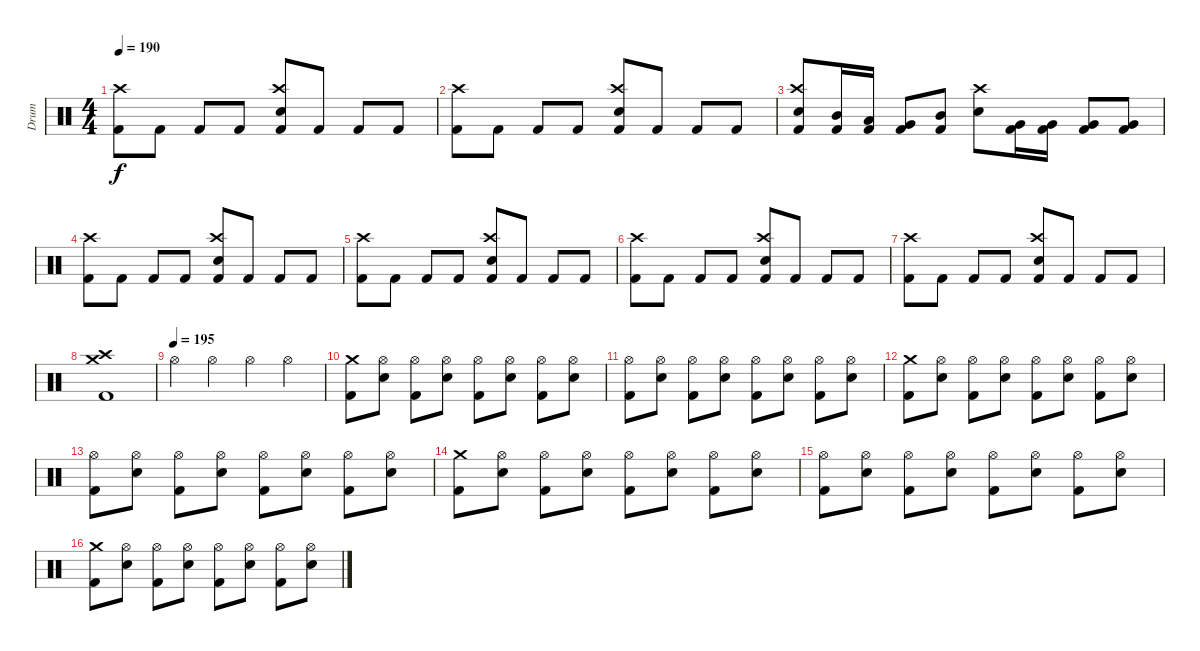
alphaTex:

\track ("Drum" "Drum") {instrument percussion}
\staff {score}
\articulation defaults
\ts (4 4)
\tempo 190
\clef neutral
\ks c
("Kick (hit) 2" "Crash high (hit)").8{dy f} "Kick (hit) 2".8 "Kick (hit) 2".8 "Kick (hit) 2".8 ("Kick (hit) 2" "Electric Snare (hit)" "Crash high (hit)").8 "Kick (hit) 2".8 "Kick (hit) 2".8 "Kick (hit) 2".8 |
("Kick (hit) 2" "Crash high (hit)").8 "Kick (hit) 2".8 "Kick (hit) 2".8 "Kick (hit) 2".8 ("Kick (hit) 2" "Electric Snare (hit)" "Crash high (hit)").8 "Kick (hit) 2".8 "Kick (hit) 2".8 "Kick (hit) 2".8 |
("Electric Snare (hit)" "Crash high (hit)" "Kick (hit) 2").8 ("Mid Tom (hit)" "Kick (hit) 2").16 ("Low Tom (hit)" "Kick (hit) 2").16 ("Very Low Tom (hit)" "Kick (hit) 2").8 ("Mid Tom (hit)" "Kick (hit) 2").8 ("Electric Snare (hit)" "Crash high (hit)").8 ("Very Low Tom (hit)" "Kick (hit) 2").16 ("Very Low Tom (hit)" "Kick (hit) 2").16 ("Very Low Tom (hit)" "Kick (hit) 2").8 ("Very Low Tom (hit)" "Kick (hit) 2").8 |
("Kick (hit) 2" "Crash high (hit)").8 "Kick (hit) 2".8 "Kick (hit) 2".8 "Kick (hit) 2".8 ("Kick (hit) 2" "Electric Snare (hit)" "Crash high (hit)").8 "Kick (hit) 2".8 "Kick (hit) 2".8 "Kick (hit) 2".8 |
("Kick (hit) 2" "Crash high (hit)").8 "Kick (hit) 2".8 "Kick (hit) 2".8 "Kick (hit) 2".8 ("Kick (hit) 2" "Electric Snare (hit)" "Crash high (hit)").8 "Kick (hit) 2".8 "Kick (hit) 2".8 "Kick (hit) 2".8 |
("Kick (hit) 2" "Crash high (hit)").8 "Kick (hit) 2".8 "Kick (hit) 2".8 "Kick (hit) 2".8 ("Kick (hit) 2" "Electric Snare (hit)" "Crash high (hit)").8 "Kick (hit) 2".8 "Kick (hit) 2".8 "Kick (hit) 2".8 |
("Kick (hit) 2" "Crash high (hit)").8 "Kick (hit) 2".8 "Kick (hit) 2".8 "Kick (hit) 2".8 ("Kick (hit) 2" "Electric Snare (hit)" "Crash high (hit)").8 "Kick (hit) 2".8 "Kick (hit) 2".8 "Kick (hit) 2".8 |
("Crash high (hit)" "Crash medium (hit)" "Kick (hit) 2").1 |
\tempo (195)
"Hi-Hat (open)".4 "Hi-Hat (open)".4 "Hi-Hat (open)".4 "Hi-Hat (open)".4 |
("Crash medium (hit)" "Kick (hit) 2").8 ("Hi-Hat (open)" "Electric Snare (hit)").8 ("Hi-Hat (open)" "Kick (hit) 2").8 ("Hi-Hat (open)" "Electric Snare (hit)").8 ("Hi-Hat (open)" "Kick (hit) 2").8 ("Hi-Hat (open)" "Electric Snare (hit)").8 ("Hi-Hat (open)" "Kick (hit) 2").8 ("Hi-Hat (open)" "Electric Snare (hit)").8 |
("Hi-Hat (open)" "Kick (hit) 2").8 ("Hi-Hat (open)" "Electric Snare (hit)").8 ("Hi-Hat (open)" "Kick (hit) 2").8 ("Hi-Hat (open)" "Electric Snare (hit)").8 ("Hi-Hat (open)" "Kick (hit) 2").8 ("Hi-Hat (open)" "Electric Snare (hit)").8 ("Hi-Hat (open)" "Kick (hit) 2").8 ("Hi-Hat (open)" "Electric Snare (hit)").8 |
("Crash medium (hit)" "Kick (hit) 2").8 ("Hi-Hat (open)" "Electric Snare (hit)").8 ("Hi-Hat (open)" "Kick (hit) 2").8 ("Hi-Hat (open)" "Electric Snare (hit)").8 ("Hi-Hat (open)" "Kick (hit) 2").8 ("Hi-Hat (open)" "Electric Snare (hit)").8 ("Hi-Hat (open)" "Kick (hit) 2").8 ("Hi-Hat (open)" "Electric Snare (hit)").8 |
("Hi-Hat (open)" "Kick (hit) 2").8 ("Hi-Hat (open)" "Electric Snare (hit)").8 ("Hi-Hat (open)" "Kick (hit) 2").8 ("Hi-Hat (open)" "Electric Snare (hit)").8 ("Hi-Hat (open)" "Kick (hit) 2").8 ("Hi-Hat (open)" "Electric Snare (hit)").8 ("Hi-Hat (open)" "Kick (hit) 2").8 ("Hi-Hat (open)" "Electric Snare (hit)").8 |
("Crash medium (hit)" "Kick (hit) 2").8 ("Hi-Hat (open)" "Electric Snare (hit)").8 ("Hi-Hat (open)" "Kick (hit) 2").8 ("Hi-Hat (open)" "Electric Snare (hit)").8 ("Hi-Hat (open)" "Kick (hit) 2").8 ("Hi-Hat (open)" "Electric Snare (hit)").8 ("Hi-Hat (open)" "Kick (hit) 2").8 ("Hi-Hat (open)" "Electric Snare (hit)").8 |
("Hi-Hat (open)" "Kick (hit) 2").8 ("Hi-Hat (open)" "Electric Snare (hit)").8 ("Hi-Hat (open)" "Kick (hit) 2").8 ("Hi-Hat (open)" "Electric Snare (hit)").8 ("Hi-Hat (open)" "Kick (hit) 2").8 ("Hi-Hat (open)" "Electric Snare (hit)").8 ("Hi-Hat (open)" "Kick (hit) 2").8 ("Hi-Hat (open)" "Electric Snare (hit)").8 |
("Crash medium (hit)" "Kick (hit) 2").8 ("Hi-Hat (open)" "Electric Snare (hit)").8 ("Hi-Hat (open)" "Kick (hit) 2").8 ("Hi-Hat (open)" "Electric Snare (hit)").8 ("Hi-Hat (open)" "Kick (hit) 2").8 ("Hi-Hat (open)" "Electric Snare (hit)").8 ("Hi-Hat (open)" "Kick (hit) 2").8 ("Hi-Hat (open)" "Electric Snare (hit)").8
